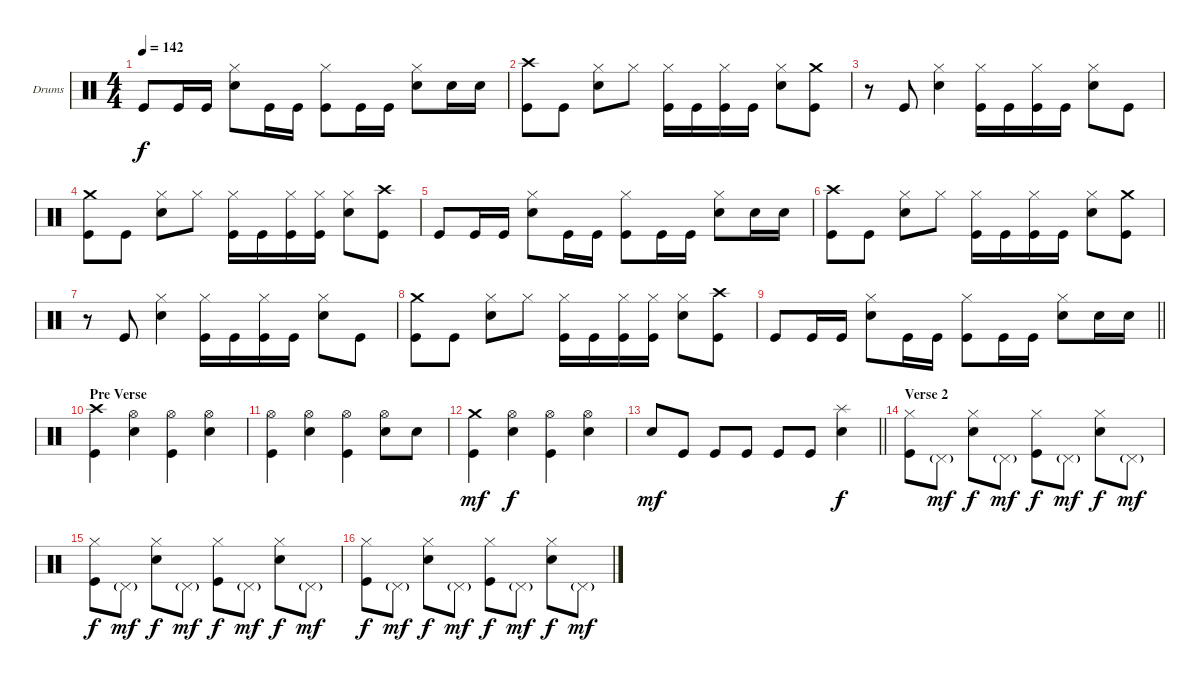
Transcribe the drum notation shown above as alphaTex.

\bracketExtendMode groupsimilarinstruments
\firstSystemTrackNameOrientation horizontal
\otherSystemsTrackNameOrientation horizontal
\track ("Percussion" "Drums") {instrument percussion}
\staff {score}
\articulation defaults
\ts (4 4)
\tempo 142
\clef neutral
\ks c "Kick (hit)".8{dy f} "Kick (hit)".16 "Kick (hit)".16
("Hi-Hat (closed)" "Snare (hit) 2").8 "Kick (hit)".16 "Kick (hit)".16 ("Hi-Hat (closed)" "Kick (hit)").8 "Kick (hit)".16 "Kick (hit)".16 ("Hi-Hat (closed)" "Snare (hit) 2").8 "Snare (hit) 2".16 "Snare (hit) 2".16 |
("Crash high (hit)" "Kick (hit)").8 "Kick (hit)".8 ("Hi-Hat (closed)" "Snare (hit) 2").8 "Hi-Hat (closed)".8 ("Hi-Hat (closed)" "Kick (hit)").16 "Kick (hit)".16 ("Hi-Hat (closed)" "Kick (hit)").16 "Kick (hit)".16 ("Hi-Hat (closed)" "Snare (hit) 2").8 ("Crash medium (hit)" "Kick (hit)").8 |
r.8 "Kick (hit)".8 ("Hi-Hat (closed)" "Snare (hit) 2").4 ("Hi-Hat (closed)" "Kick (hit)").16 "Kick (hit)".16 ("Hi-Hat (closed)" "Kick (hit)").16 "Kick (hit)".16 ("Hi-Hat (closed)" "Snare (hit) 2").8 "Kick (hit)".8 |
("Crash medium (hit)" "Kick (hit)").8 "Kick (hit)".8 ("Hi-Hat (closed)" "Snare (hit) 2").8 "Hi-Hat (closed)".8 ("Hi-Hat (closed)" "Kick (hit)").16 "Kick (hit)".16 ("Hi-Hat (closed)" "Kick (hit)").16 ("Hi-Hat (closed)" "Kick (hit)").16 ("Hi-Hat (closed)" "Snare (hit) 2").8 ("Crash high (hit)" "Kick (hit)").8 |
"Kick (hit)".8 "Kick (hit)".16 "Kick (hit)".16 ("Hi-Hat (closed)" "Snare (hit) 2").8 "Kick (hit)".16 "Kick (hit)".16 ("Hi-Hat (closed)" "Kick (hit)").8 "Kick (hit)".16 "Kick (hit)".16 ("Hi-Hat (closed)" "Snare (hit) 2").8 "Snare (hit) 2".16 "Snare (hit) 2".16 |
("Crash high (hit)" "Kick (hit)").8 "Kick (hit)".8 ("Hi-Hat (closed)" "Snare (hit) 2").8 "Hi-Hat (closed)".8 ("Hi-Hat (closed)" "Kick (hit)").16 "Kick (hit)".16 ("Hi-Hat (closed)" "Kick (hit)").16 "Kick (hit)".16 ("Hi-Hat (closed)" "Snare (hit) 2").8 ("Crash medium (hit)" "Kick (hit)").8 |
r.8 "Kick (hit)".8 ("Hi-Hat (closed)" "Snare (hit) 2").4 ("Hi-Hat (closed)" "Kick (hit)").16 "Kick (hit)".16 ("Hi-Hat (closed)" "Kick (hit)").16 "Kick (hit)".16 ("Hi-Hat (closed)" "Snare (hit) 2").8 "Kick (hit)".8 |
("Crash medium (hit)" "Kick (hit)").8 "Kick (hit)".8 ("Hi-Hat (closed)" "Snare (hit) 2").8 "Hi-Hat (closed)".8 ("Hi-Hat (closed)" "Kick (hit)").16 "Kick (hit)".16 ("Hi-Hat (closed)" "Kick (hit)").16 ("Hi-Hat (closed)" "Kick (hit)").16 ("Hi-Hat (closed)" "Snare (hit) 2").8 ("Crash high (hit)" "Kick (hit)").8 |
\barLineRight lightlight "Kick (hit)".8 "Kick (hit)".16 "Kick (hit)".16
("Hi-Hat (closed)" "Snare (hit) 2").8 "Kick (hit)".16 "Kick (hit)".16 ("Hi-Hat (closed)" "Kick (hit)").8 "Kick (hit)".16 "Kick (hit)".16 ("Hi-Hat (closed)" "Snare (hit) 2").8 "Snare (hit) 2".16 "Snare (hit) 2".16 |
\section ("" "Pre Verse")
("Crash high (hit)" "Kick (hit)").4 ("Hi-Hat (open)" "Snare (hit) 2").4 ("Hi-Hat (open)" "Kick (hit)").4 ("Hi-Hat (open)" "Snare (hit) 2").4 |
("Hi-Hat (open)" "Kick (hit)").4 ("Hi-Hat (open)" "Snare (hit) 2").4 ("Hi-Hat (open)" "Kick (hit)").4 ("Hi-Hat (open)" "Snare (hit) 2").8 "Snare (hit) 2".8 |
("Crash medium (hit)" "Kick (hit)").4{dy mf} ("Hi-Hat (open)" "Snare (hit) 2").4{dy f} ("Hi-Hat (open)" "Kick (hit)").4 ("Hi-Hat (open)" "Snare (hit) 2").4 |
\barLineRight lightlight "Snare (hit) 2".8{dy mf} "Kick (hit)".8 "Kick (hit)".8 "Kick (hit)".8 "Kick (hit)".8 "Kick (hit)".8
("Splash (hit)" "Snare (hit) 2").4{dy f} |
\section ("" "Verse 2")
("Hi-Hat (closed)" "Kick (hit)").8 "Pedal Hi-Hat (hit)"{g}.8{dy mf} ("Hi-Hat (closed)" "Snare (hit) 2").8{dy f} "Pedal Hi-Hat (hit)"{g}.8{dy mf} ("Hi-Hat (closed)" "Kick (hit)").8{dy f} "Pedal Hi-Hat (hit)"{g}.8{dy mf} ("Hi-Hat (closed)" "Snare (hit) 2").8{dy f} "Pedal Hi-Hat (hit)"{g}.8{dy mf} |
("Hi-Hat (closed)" "Kick (hit)").8{dy f} "Pedal Hi-Hat (hit)"{g}.8{dy mf} ("Hi-Hat (closed)" "Snare (hit) 2").8{dy f} "Pedal Hi-Hat (hit)"{g}.8{dy mf} ("Hi-Hat (closed)" "Kick (hit)").8{dy f} "Pedal Hi-Hat (hit)"{g}.8{dy mf} ("Hi-Hat (closed)" "Snare (hit) 2").8{dy f} "Pedal Hi-Hat (hit)"{g}.8{dy mf} |
("Hi-Hat (closed)" "Kick (hit)").8{dy f} "Pedal Hi-Hat (hit)"{g}.8{dy mf} ("Hi-Hat (closed)" "Snare (hit) 2").8{dy f} "Pedal Hi-Hat (hit)"{g}.8{dy mf} ("Hi-Hat (closed)" "Kick (hit)").8{dy f} "Pedal Hi-Hat (hit)"{g}.8{dy mf} ("Hi-Hat (closed)" "Snare (hit) 2").8{dy f} "Pedal Hi-Hat (hit)"{g}.8{dy mf}
